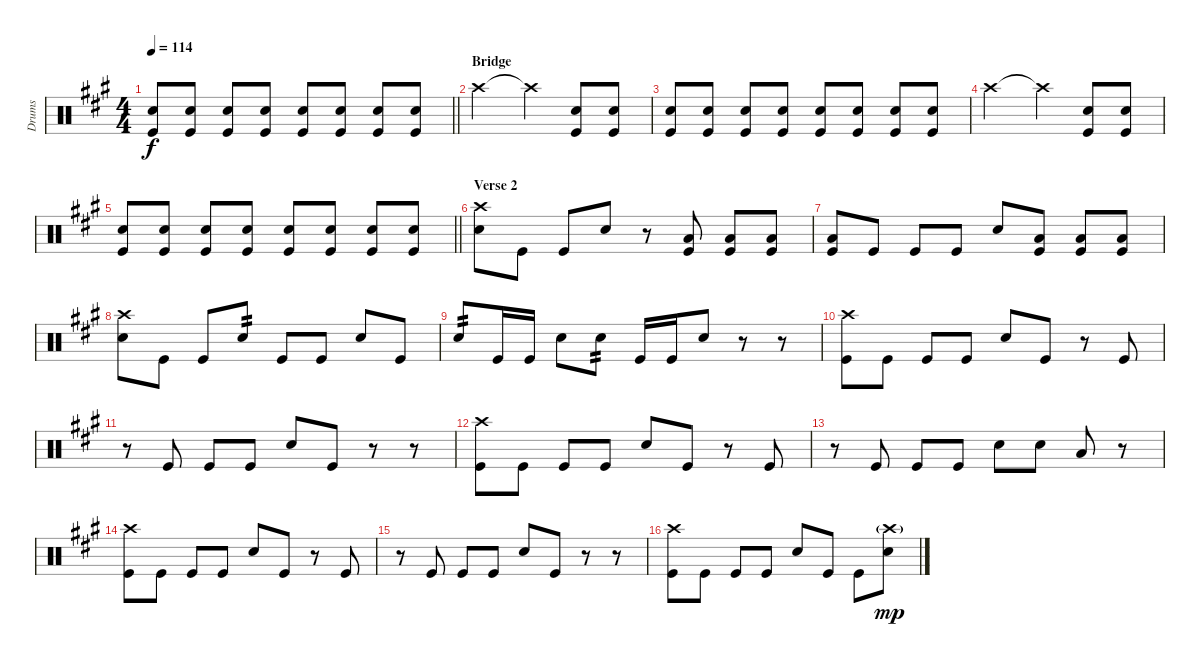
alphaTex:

\track ("Drums" "Drums") {instrument percussion}
\staff {score}
\articulation defaults
\ts (4 4)
\tempo 114
\clef neutral
\barLineRight lightlight
\ks f#minor
("Snare (hit) 2" "Kick (hit)").8{dy f} ("Snare (hit) 2" "Kick (hit)").8 ("Snare (hit) 2" "Kick (hit)").8 ("Snare (hit) 2" "Kick (hit)").8 ("Snare (hit) 2" "Kick (hit)").8 ("Snare (hit) 2" "Kick (hit)").8 ("Snare (hit) 2" "Kick (hit)").8 ("Snare (hit) 2" "Kick (hit)").8 |
\section ("" "Bridge")
"Crash high (hit)".2{volume 0} "Crash high (hit)"{t}.4{volume 0} ("Snare (hit) 2" "Kick (hit)").8{volume 10} ("Snare (hit) 2" "Kick (hit)").8 |
("Snare (hit) 2" "Kick (hit)").8 ("Snare (hit) 2" "Kick (hit)").8 ("Snare (hit) 2" "Kick (hit)").8 ("Snare (hit) 2" "Kick (hit)").8 ("Snare (hit) 2" "Kick (hit)").8 ("Snare (hit) 2" "Kick (hit)").8 ("Snare (hit) 2" "Kick (hit)").8 ("Snare (hit) 2" "Kick (hit)").8 |
"Crash high (hit)".2{volume 0} "Crash high (hit)"{t}.4{volume 0} ("Snare (hit) 2" "Kick (hit)").8{volume 10} ("Snare (hit) 2" "Kick (hit)").8 |
\barLineRight lightlight
("Snare (hit) 2" "Kick (hit)").8 ("Snare (hit) 2" "Kick (hit)").8 ("Snare (hit) 2" "Kick (hit)").8 ("Snare (hit) 2" "Kick (hit)").8 ("Snare (hit) 2" "Kick (hit)").8 ("Snare (hit) 2" "Kick (hit)").8 ("Snare (hit) 2" "Kick (hit)").8 ("Snare (hit) 2" "Kick (hit)").8 |
\section ("" "Verse 2")
("Crash high (hit)" "Snare (hit) 2").8 "Kick (hit)".8 "Kick (hit)".8 "Snare (hit) 2".8 r.8 ("Low Floor Tom (hit)" "Kick (hit)").8 ("Low Floor Tom (hit)" "Kick (hit)").8 ("Low Floor Tom (hit)" "Kick (hit)").8 |
("Low Floor Tom (hit)" "Kick (hit)").8 "Kick (hit)".8 "Kick (hit)".8 "Kick (hit)".8 "Snare (hit) 2".8 ("Low Floor Tom (hit)" "Kick (hit)").8 ("Low Floor Tom (hit)" "Kick (hit)").8 ("Low Floor Tom (hit)" "Kick (hit)").8 |
("Crash high (hit)" "Snare (hit) 2").8 "Kick (hit)".8 "Kick (hit)".8 "Snare (hit) 2".8{tp 2} "Kick (hit)".8 "Kick (hit)".8 "Snare (hit) 2".8 "Kick (hit)".8 |
"Snare (hit) 2".8{tp 2} "Kick (hit)".16 "Kick (hit)".16 "Snare (hit) 2".8 "Snare (hit) 2".8{tp 2} "Kick (hit)".16 "Kick (hit)".16 "Snare (hit) 2".8 r.8 r.8 |
("Crash high (hit)" "Kick (hit)").8 "Kick (hit)".8 "Kick (hit)".8 "Kick (hit)".8 "Snare (hit) 2".8 "Kick (hit)".8 r.8 "Kick (hit)".8 |
r.8 "Kick (hit)".8 "Kick (hit)".8 "Kick (hit)".8 "Snare (hit) 2".8 "Kick (hit)".8 r.8 r.8 |
("Crash high (hit)" "Kick (hit)").8 "Kick (hit)".8 "Kick (hit)".8 "Kick (hit)".8 "Snare (hit) 2".8 "Kick (hit)".8 r.8 "Kick (hit)".8 |
r.8 "Kick (hit)".8 "Kick (hit)".8 "Kick (hit)".8 "Snare (hit) 2".8 "Snare (hit) 2".8 "Low Floor Tom (hit)".8 r.8 |
("Crash high (hit)" "Kick (hit)").8 "Kick (hit)".8 "Kick (hit)".8 "Kick (hit)".8 "Snare (hit) 2".8 "Kick (hit)".8 r.8 "Kick (hit)".8 |
r.8 "Kick (hit)".8 "Kick (hit)".8 "Kick (hit)".8 "Snare (hit) 2".8 "Kick (hit)".8 r.8 r.8 |
("Crash high (hit)" "Kick (hit)").8 "Kick (hit)".8 "Kick (hit)".8 "Kick (hit)".8 "Snare (hit) 2".8 "Kick (hit)".8 "Kick (hit)".8 ("Crash high (hit)"{g} "Snare (hit) 2").8{dy mp}
